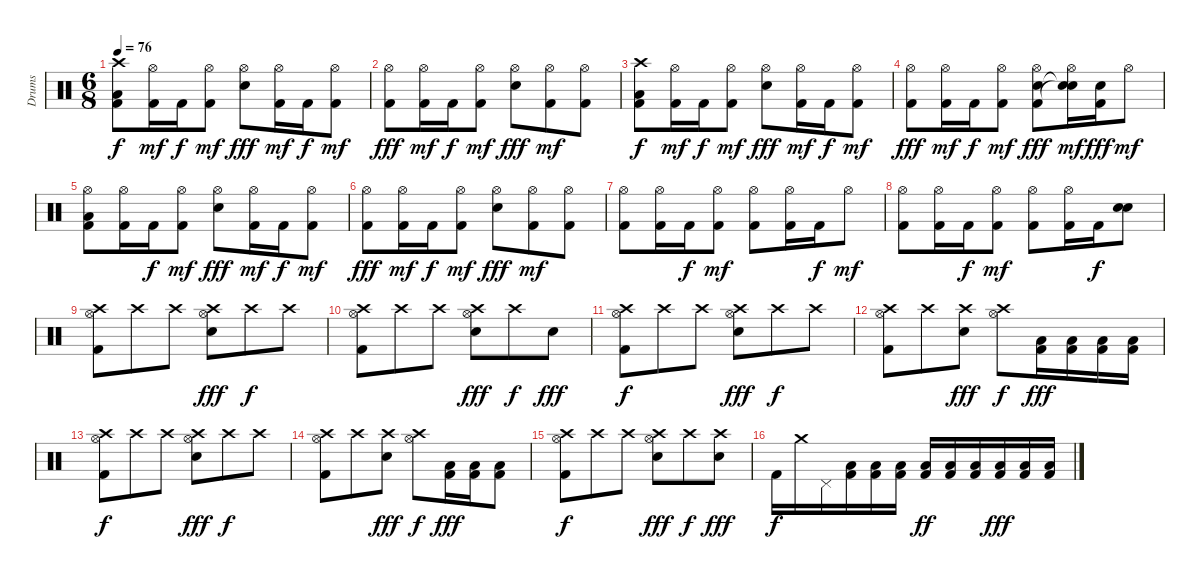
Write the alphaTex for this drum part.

\track ("Drums" "Drums") {instrument percussion}
\staff {score}
\articulation defaults
\ts (6 8)
\tempo 76
\clef neutral
\ks c
("Crash high (hit)" "Low Floor Tom (hit)" "Kick (hit) 2").8{dy f} ("Hi-Hat (open)" "Kick (hit) 2").16{dy mf} "Kick (hit) 2".16{dy f} ("Hi-Hat (open)" "Kick (hit) 2").8{dy mf} ("Hi-Hat (open)" "Snare (hit) 2").8{dy fff} ("Hi-Hat (open)" "Kick (hit) 2").16{dy mf} "Kick (hit) 2".16{dy f} ("Hi-Hat (open)" "Kick (hit) 2").8{dy mf} |
("Hi-Hat (open)" "Kick (hit) 2").8{dy fff} ("Hi-Hat (open)" "Kick (hit) 2").16{dy mf} "Kick (hit) 2".16{dy f} ("Hi-Hat (open)" "Kick (hit) 2").8{dy mf} ("Hi-Hat (open)" "Snare (hit) 2").8{dy fff} ("Hi-Hat (open)" "Kick (hit) 2").8{dy mf} ("Hi-Hat (open)" "Kick (hit) 2").8 |
("Crash high (hit)" "Low Floor Tom (hit)" "Kick (hit) 2").8{dy f} ("Hi-Hat (open)" "Kick (hit) 2").16{dy mf} "Kick (hit) 2".16{dy f} ("Hi-Hat (open)" "Kick (hit) 2").8{dy mf} ("Hi-Hat (open)" "Snare (hit) 2").8{dy fff} ("Hi-Hat (open)" "Kick (hit) 2").16{dy mf} "Kick (hit) 2".16{dy f} ("Hi-Hat (open)" "Kick (hit) 2").8{dy mf} |
("Hi-Hat (open)" "Kick (hit) 2").8{dy fff} ("Hi-Hat (open)" "Kick (hit) 2").16{dy mf} "Kick (hit) 2".16{dy f} ("Hi-Hat (open)" "Kick (hit) 2").8{dy mf} ("Hi-Hat (open)" "Snare (hit) 2" "Kick (hit) 2").8{dy fff} ("Hi-Hat (open)" "Snare (hit)"{t} "Snare (hit)"{t}).16{dy mf} ("Snare (hit) 2" "Kick (hit) 2").16{dy fff} "Hi-Hat (open)".8{dy mf} |
("Hi-Hat (open)" "Low Floor Tom (hit)" "Kick (hit) 2").8 ("Hi-Hat (open)" "Kick (hit) 2").16 "Kick (hit) 2".16{dy f} ("Hi-Hat (open)" "Kick (hit) 2").8{dy mf} ("Hi-Hat (open)" "Snare (hit) 2").8{dy fff} ("Hi-Hat (open)" "Kick (hit) 2").16{dy mf} "Kick (hit) 2".16{dy f} ("Hi-Hat (open)" "Kick (hit) 2").8{dy mf} |
("Hi-Hat (open)" "Kick (hit) 2").8{dy fff} ("Hi-Hat (open)" "Kick (hit) 2").16{dy mf} "Kick (hit) 2".16{dy f} ("Hi-Hat (open)" "Kick (hit) 2").8{dy mf} ("Hi-Hat (open)" "Snare (hit) 2").8{dy fff} ("Hi-Hat (open)" "Kick (hit) 2").8{dy mf} ("Hi-Hat (open)" "Kick (hit) 2").8 |
("Hi-Hat (open)" "Kick (hit) 2").8 ("Hi-Hat (open)" "Kick (hit) 2").16 "Kick (hit) 2".16{dy f} ("Hi-Hat (open)" "Kick (hit) 2").8{dy mf} ("Hi-Hat (open)" "Kick (hit) 2").8 ("Hi-Hat (open)" "Kick (hit) 2").16 "Kick (hit) 2".16{dy f} "Hi-Hat (open)".8{dy mf} |
("Hi-Hat (open)" "Kick (hit) 2").8 ("Hi-Hat (open)" "Kick (hit) 2").16 "Kick (hit) 2".16{dy f} ("Hi-Hat (open)" "Kick (hit) 2").8{dy mf} ("Hi-Hat (open)" "Kick (hit) 2").8 ("Hi-Hat (open)" "Kick (hit) 2").16 "Kick (hit) 2".16{dy f} ("Snare (hit) 2" "Snare (hit) 2").8 |
("Crash high (hit)" "Hi-Hat (open)" "Kick (hit) 2").8 "Crash high (hit)".8 "Crash high (hit)".8 ("Crash high (hit)" "Hi-Hat (open)" "Snare (hit) 2").8{dy fff} "Crash high (hit)".8{dy f} "Crash high (hit)".8 |
("Crash high (hit)" "Hi-Hat (open)" "Kick (hit) 2").8 "Crash high (hit)".8 "Crash high (hit)".8 ("Crash high (hit)" "Hi-Hat (open)" "Snare (hit) 2").8{dy fff} "Crash high (hit)".8{dy f} "Snare (hit) 2".8{dy fff} |
("Crash high (hit)" "Hi-Hat (open)" "Kick (hit) 2").8{dy f} "Crash high (hit)".8 "Crash high (hit)".8 ("Crash high (hit)" "Hi-Hat (open)" "Snare (hit) 2").8{dy fff} "Crash high (hit)".8{dy f} "Crash high (hit)".8 |
("Crash high (hit)" "Hi-Hat (open)" "Kick (hit) 2").8 "Crash high (hit)".8 ("Crash high (hit)" "Snare (hit) 2").8{dy fff} ("Crash high (hit)" "Hi-Hat (open)").8{dy f} ("Low Tom (hit)" "Kick (hit) 2").16{dy fff} ("Low Tom (hit)" "Kick (hit) 2").16 ("Low Tom (hit)" "Kick (hit) 2").16 ("Low Tom (hit)" "Kick (hit) 2").16 |
("Crash high (hit)" "Hi-Hat (open)" "Kick (hit) 2").8{dy f} "Crash high (hit)".8 "Crash high (hit)".8 ("Crash high (hit)" "Hi-Hat (open)" "Snare (hit) 2").8{dy fff} "Crash high (hit)".8{dy f} "Crash high (hit)".8 |
("Crash high (hit)" "Hi-Hat (open)" "Kick (hit) 2").8 "Crash high (hit)".8 ("Crash high (hit)" "Snare (hit) 2").8{dy fff} ("Crash high (hit)" "Hi-Hat (open)").8{dy f} ("Low Tom (hit)" "Kick (hit) 2").16{dy fff} ("Low Tom (hit)" "Kick (hit) 2").16 ("Low Tom (hit)" "Kick (hit) 2").8 |
("Crash high (hit)" "Hi-Hat (open)" "Kick (hit) 2").8{dy f} "Crash high (hit)".8 "Crash high (hit)".8 ("Crash high (hit)" "Hi-Hat (open)" "Snare (hit) 2").8{dy fff} "Crash high (hit)".8{dy f} ("Crash high (hit)" "Snare (hit) 2").8{dy fff} |
"Kick (hit) 2".16{dy f} "Crash medium (hit)".16 "Pedal Hi-Hat (hit)".16 ("Low Tom (hit)" "Kick (hit) 2").16 ("Low Tom (hit)" "Kick (hit) 2").16 ("Low Tom (hit)" "Kick (hit) 2").16 ("Low Tom (hit)" "Kick (hit) 2").16{dy ff} ("Low Tom (hit)" "Kick (hit) 2").16 ("Low Tom (hit)" "Kick (hit) 2").16 ("Low Tom (hit)" "Kick (hit) 2").16{dy fff} ("Low Tom (hit)" "Kick (hit) 2").16 ("Low Tom (hit)" "Kick (hit) 2").16
